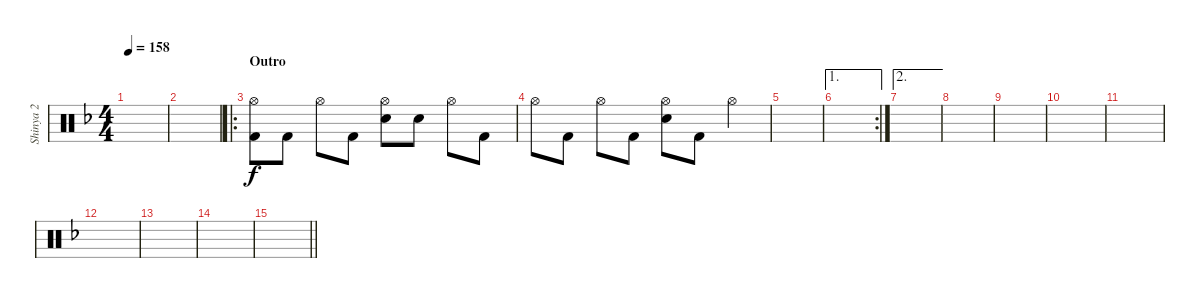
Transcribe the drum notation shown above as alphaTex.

\track ("Shinya 2" "Shinya 2") {instrument percussion}
\staff {score}
\articulation defaults
\ts (4 4)
\tempo 158
\clef neutral
\ks f
|
|
\ro
\section ("" "Outro")
("Hi-Hat (open)" "Kick (hit) 2").8 "Kick (hit) 2".8 "Hi-Hat (open)".8 "Kick (hit) 2".8 ("Hi-Hat (open)" "Snare (hit) 2").8 "Snare (hit) 2".8 "Hi-Hat (open)".8 "Kick (hit) 2".8 |
"Hi-Hat (open)".8 "Kick (hit) 2".8 "Hi-Hat (open)".8 "Kick (hit) 2".8 ("Hi-Hat (open)" "Snare (hit) 2").8 "Kick (hit) 2".8 "Hi-Hat (open)".4 |
|
\ae 1
\rc 2
|
\ae 2
|
|
|
|
|
|
|
|
\barLineRight lightlight
